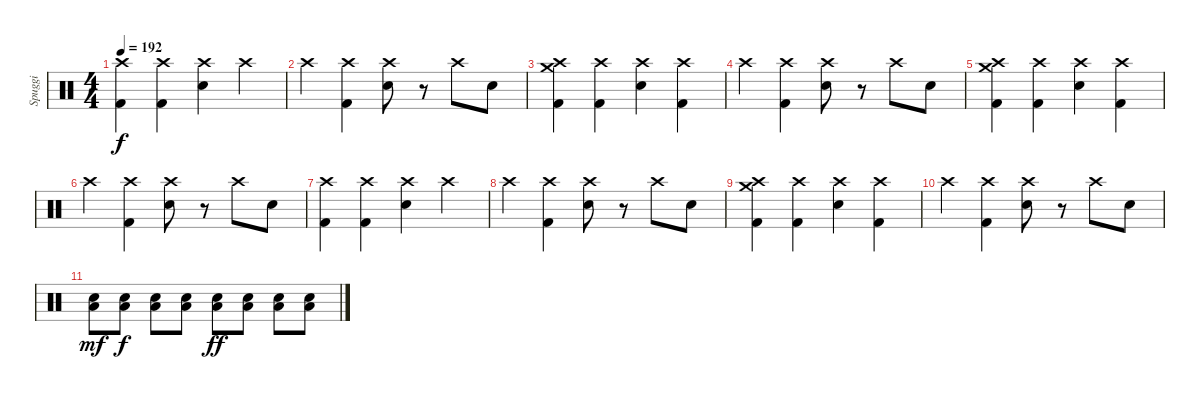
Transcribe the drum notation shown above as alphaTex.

\track ("Spuggi" "Spuggi") {instrument percussion}
\staff {score}
\articulation defaults
\ts (4 4)
\tempo 192
\clef neutral
\ks c
("Crash high (hit)" "Kick (hit) 2").4{dy f} ("Crash high (hit)" "Kick (hit) 2").4 ("Crash high (hit)" "Snare (hit) 2").4 "Crash high (hit)".4 |
"Crash high (hit)".4 ("Crash high (hit)" "Kick (hit) 2").4 ("Crash high (hit)" "Snare (hit) 2").8 r.8 "Crash high (hit)".8 "Snare (hit) 2".8 |
("Crash high (hit)" "Crash medium (hit)" "Kick (hit) 2").4 ("Crash high (hit)" "Kick (hit) 2").4 ("Crash high (hit)" "Snare (hit) 2").4 ("Crash high (hit)" "Kick (hit) 2").4 |
"Crash high (hit)".4 ("Crash high (hit)" "Kick (hit) 2").4 ("Crash high (hit)" "Snare (hit) 2").8 r.8 "Crash high (hit)".8 "Snare (hit) 2".8 |
("Crash high (hit)" "Crash medium (hit)" "Kick (hit) 2").4 ("Crash high (hit)" "Kick (hit) 2").4 ("Crash high (hit)" "Snare (hit) 2").4 ("Crash high (hit)" "Kick (hit) 2").4 |
"Crash high (hit)".4 ("Crash high (hit)" "Kick (hit) 2").4 ("Crash high (hit)" "Snare (hit) 2").8 r.8 "Crash high (hit)".8 "Snare (hit) 2".8 |
("Crash high (hit)" "Kick (hit) 2").4 ("Crash high (hit)" "Kick (hit) 2").4 ("Crash high (hit)" "Snare (hit) 2").4 "Crash high (hit)".4 |
"Crash high (hit)".4 ("Crash high (hit)" "Kick (hit) 2").4 ("Crash high (hit)" "Snare (hit) 2").8 r.8 "Crash high (hit)".8 "Snare (hit) 2".8 |
("Crash high (hit)" "Crash medium (hit)" "Kick (hit) 2").4 ("Crash high (hit)" "Kick (hit) 2").4 ("Crash high (hit)" "Snare (hit) 2").4 ("Crash high (hit)" "Kick (hit) 2").4 |
"Crash high (hit)".4 ("Crash high (hit)" "Kick (hit) 2").4 ("Crash high (hit)" "Snare (hit) 2").8 r.8 "Crash high (hit)".8 "Snare (hit) 2".8 |
("Low Tom (hit)" "Snare (hit) 2").8{dy mf} ("Low Tom (hit)" "Snare (hit) 2").8{dy f} ("Low Tom (hit)" "Snare (hit) 2").8 ("Low Tom (hit)" "Snare (hit) 2").8 ("Low Tom (hit)" "Snare (hit) 2").8{dy ff} ("Low Tom (hit)" "Snare (hit) 2").8 ("Low Tom (hit)" "Snare (hit) 2").8 ("Low Tom (hit)" "Snare (hit) 2").8
